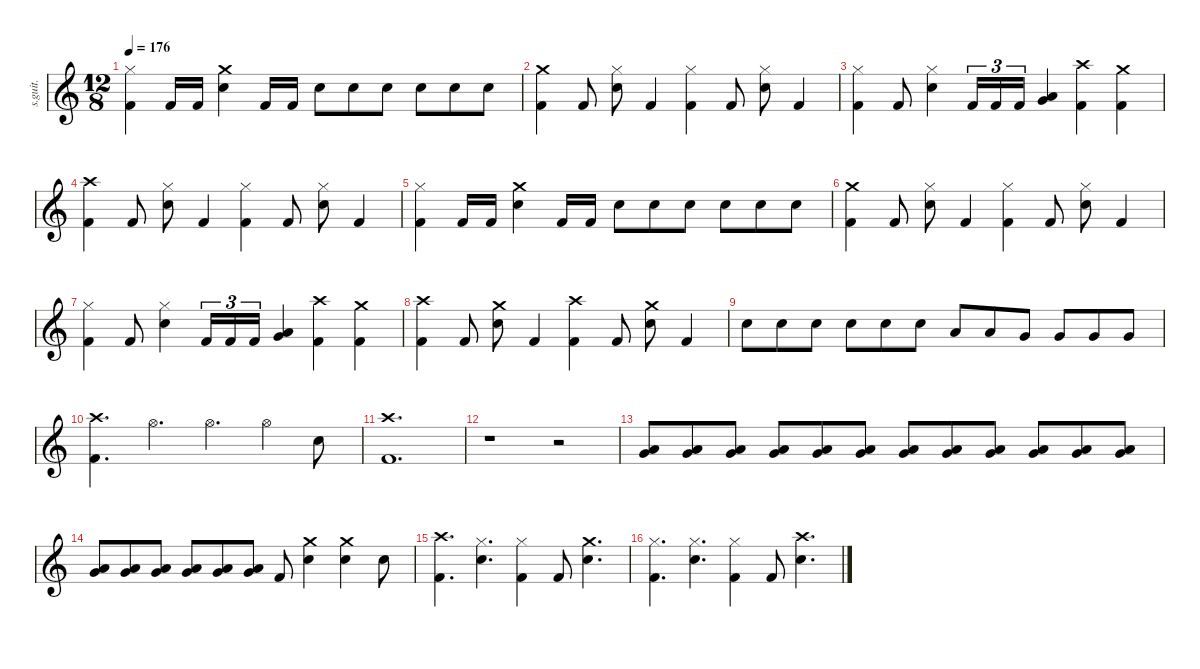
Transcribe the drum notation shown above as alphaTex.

\defaultSystemsLayout 4
\hideDynamics
\bracketExtendMode nobrackets
\track ("Vinnie Paul" "s.guit.") {instrument percussion}
\staff {score}
\articulation defaults
\ts (12 8)
\tempo 176
\clef g2
\ks c
("Hi-Hat (closed)" "Kick (hit) 2").4{lyrics (0 "") lyrics (1 "") lyrics (2 "") lyrics (3 "") lyrics (4 "") dy f} "Kick (hit) 2".16{lyrics (0 "") lyrics (1 "") lyrics (2 "") lyrics (3 "") lyrics (4 "")} "Kick (hit) 2".16{lyrics (0 "") lyrics (1 "") lyrics (2 "") lyrics (3 "") lyrics (4 "")} ("Crash medium (hit)" "Snare (hit) 2").4{lyrics (0 "") lyrics (1 "") lyrics (2 "") lyrics (3 "") lyrics (4 "")} "Kick (hit) 2".16{lyrics (0 "") lyrics (1 "") lyrics (2 "") lyrics (3 "") lyrics (4 "")} "Kick (hit) 2".16{lyrics (0 "") lyrics (1 "") lyrics (2 "") lyrics (3 "") lyrics (4 "")} "Snare (hit) 2".8{lyrics (0 "") lyrics (1 "") lyrics (2 "") lyrics (3 "") lyrics (4 "")} "Snare (hit) 2".8{lyrics (0 "") lyrics (1 "") lyrics (2 "") lyrics (3 "") lyrics (4 "")} "Snare (hit) 2".8{lyrics (0 "") lyrics (1 "") lyrics (2 "") lyrics (3 "") lyrics (4 "")} "Snare (hit) 2".8{lyrics (0 "") lyrics (1 "") lyrics (2 "") lyrics (3 "") lyrics (4 "")} "Snare (hit) 2".8{lyrics (0 "") lyrics (1 "") lyrics (2 "") lyrics (3 "") lyrics (4 "")} "Snare (hit) 2".8{lyrics (0 "") lyrics (1 "") lyrics (2 "") lyrics (3 "") lyrics (4 "")} |
("Crash medium (hit)" "Kick (hit) 2").4{lyrics (0 "") lyrics (1 "") lyrics (2 "") lyrics (3 "") lyrics (4 "")} "Kick (hit) 2".8{lyrics (0 "") lyrics (1 "") lyrics (2 "") lyrics (3 "") lyrics (4 "")} ("Hi-Hat (closed)" "Snare (hit) 2").8{lyrics (0 "") lyrics (1 "") lyrics (2 "") lyrics (3 "") lyrics (4 "")} "Kick (hit) 2".4{lyrics (0 "") lyrics (1 "") lyrics (2 "") lyrics (3 "") lyrics (4 "")} ("Hi-Hat (closed)" "Kick (hit) 2").4{lyrics (0 "") lyrics (1 "") lyrics (2 "") lyrics (3 "") lyrics (4 "")} "Kick (hit) 2".8{lyrics (0 "") lyrics (1 "") lyrics (2 "") lyrics (3 "") lyrics (4 "")} ("Hi-Hat (closed)" "Snare (hit) 2").8{lyrics (0 "") lyrics (1 "") lyrics (2 "") lyrics (3 "") lyrics (4 "")} "Kick (hit) 2".4{lyrics (0 "") lyrics (1 "") lyrics (2 "") lyrics (3 "") lyrics (4 "")} |
("Hi-Hat (closed)" "Kick (hit) 2").4{lyrics (0 "") lyrics (1 "") lyrics (2 "") lyrics (3 "") lyrics (4 "")} "Kick (hit) 2".8{lyrics (0 "") lyrics (1 "") lyrics (2 "") lyrics (3 "") lyrics (4 "")} ("Hi-Hat (closed)" "Snare (hit) 2").4{lyrics (0 "") lyrics (1 "") lyrics (2 "") lyrics (3 "") lyrics (4 "")} "Kick (hit) 2".16{tu (3 2) lyrics (0 "") lyrics (1 "") lyrics (2 "") lyrics (3 "") lyrics (4 "")} "Kick (hit) 2".16{tu (3 2) lyrics (0 "") lyrics (1 "") lyrics (2 "") lyrics (3 "") lyrics (4 "")} "Kick (hit) 2".16{tu (3 2) lyrics (0 "") lyrics (1 "") lyrics (2 "") lyrics (3 "") lyrics (4 "")} ("Very Low Tom (hit)" "Low Floor Tom (hit)").4{lyrics (0 "") lyrics (1 "") lyrics (2 "") lyrics (3 "") lyrics (4 "")} ("Crash high (hit)" "Kick (hit) 2").4{lyrics (0 "") lyrics (1 "") lyrics (2 "") lyrics (3 "") lyrics (4 "")} ("Crash medium (hit)" "Kick (hit) 2").4{lyrics (0 "") lyrics (1 "") lyrics (2 "") lyrics (3 "") lyrics (4 "")} |
("Crash high (hit)" "Kick (hit) 2").4{lyrics (0 "") lyrics (1 "") lyrics (2 "") lyrics (3 "") lyrics (4 "")} "Kick (hit) 2".8{lyrics (0 "") lyrics (1 "") lyrics (2 "") lyrics (3 "") lyrics (4 "")} ("Hi-Hat (closed)" "Snare (hit) 2").8{lyrics (0 "") lyrics (1 "") lyrics (2 "") lyrics (3 "") lyrics (4 "")} "Kick (hit) 2".4{lyrics (0 "") lyrics (1 "") lyrics (2 "") lyrics (3 "") lyrics (4 "")} ("Hi-Hat (closed)" "Kick (hit) 2").4{lyrics (0 "") lyrics (1 "") lyrics (2 "") lyrics (3 "") lyrics (4 "")} "Kick (hit) 2".8{lyrics (0 "") lyrics (1 "") lyrics (2 "") lyrics (3 "") lyrics (4 "")} ("Hi-Hat (closed)" "Snare (hit) 2").8{lyrics (0 "") lyrics (1 "") lyrics (2 "") lyrics (3 "") lyrics (4 "")} "Kick (hit) 2".4{lyrics (0 "") lyrics (1 "") lyrics (2 "") lyrics (3 "") lyrics (4 "")} |
("Hi-Hat (closed)" "Kick (hit) 2").4{lyrics (0 "") lyrics (1 "") lyrics (2 "") lyrics (3 "") lyrics (4 "")} "Kick (hit) 2".16{lyrics (0 "") lyrics (1 "") lyrics (2 "") lyrics (3 "") lyrics (4 "")} "Kick (hit) 2".16{lyrics (0 "") lyrics (1 "") lyrics (2 "") lyrics (3 "") lyrics (4 "")} ("Crash medium (hit)" "Snare (hit) 2").4{lyrics (0 "") lyrics (1 "") lyrics (2 "") lyrics (3 "") lyrics (4 "")} "Kick (hit) 2".16{lyrics (0 "") lyrics (1 "") lyrics (2 "") lyrics (3 "") lyrics (4 "")} "Kick (hit) 2".16{lyrics (0 "") lyrics (1 "") lyrics (2 "") lyrics (3 "") lyrics (4 "")} "Snare (hit) 2".8{lyrics (0 "") lyrics (1 "") lyrics (2 "") lyrics (3 "") lyrics (4 "")} "Snare (hit) 2".8{lyrics (0 "") lyrics (1 "") lyrics (2 "") lyrics (3 "") lyrics (4 "")} "Snare (hit) 2".8{lyrics (0 "") lyrics (1 "") lyrics (2 "") lyrics (3 "") lyrics (4 "")} "Snare (hit) 2".8{lyrics (0 "") lyrics (1 "") lyrics (2 "") lyrics (3 "") lyrics (4 "")} "Snare (hit) 2".8{lyrics (0 "") lyrics (1 "") lyrics (2 "") lyrics (3 "") lyrics (4 "")} "Snare (hit) 2".8{lyrics (0 "") lyrics (1 "") lyrics (2 "") lyrics (3 "") lyrics (4 "")} |
("Crash medium (hit)" "Kick (hit) 2").4{lyrics (0 "") lyrics (1 "") lyrics (2 "") lyrics (3 "") lyrics (4 "")} "Kick (hit) 2".8{lyrics (0 "") lyrics (1 "") lyrics (2 "") lyrics (3 "") lyrics (4 "")} ("Hi-Hat (closed)" "Snare (hit) 2").8{lyrics (0 "") lyrics (1 "") lyrics (2 "") lyrics (3 "") lyrics (4 "")} "Kick (hit) 2".4{lyrics (0 "") lyrics (1 "") lyrics (2 "") lyrics (3 "") lyrics (4 "")} ("Hi-Hat (closed)" "Kick (hit) 2").4{lyrics (0 "") lyrics (1 "") lyrics (2 "") lyrics (3 "") lyrics (4 "")} "Kick (hit) 2".8{lyrics (0 "") lyrics (1 "") lyrics (2 "") lyrics (3 "") lyrics (4 "")} ("Hi-Hat (closed)" "Snare (hit) 2").8{lyrics (0 "") lyrics (1 "") lyrics (2 "") lyrics (3 "") lyrics (4 "")} "Kick (hit) 2".4{lyrics (0 "") lyrics (1 "") lyrics (2 "") lyrics (3 "") lyrics (4 "")} |
("Hi-Hat (closed)" "Kick (hit) 2").4{lyrics (0 "") lyrics (1 "") lyrics (2 "") lyrics (3 "") lyrics (4 "")} "Kick (hit) 2".8{lyrics (0 "") lyrics (1 "") lyrics (2 "") lyrics (3 "") lyrics (4 "")} ("Hi-Hat (closed)" "Snare (hit) 2").4{lyrics (0 "") lyrics (1 "") lyrics (2 "") lyrics (3 "") lyrics (4 "")} "Kick (hit) 2".16{tu (3 2) lyrics (0 "") lyrics (1 "") lyrics (2 "") lyrics (3 "") lyrics (4 "")} "Kick (hit) 2".16{tu (3 2) lyrics (0 "") lyrics (1 "") lyrics (2 "") lyrics (3 "") lyrics (4 "")} "Kick (hit) 2".16{tu (3 2) lyrics (0 "") lyrics (1 "") lyrics (2 "") lyrics (3 "") lyrics (4 "")} ("Very Low Tom (hit)" "Low Floor Tom (hit)").4{lyrics (0 "") lyrics (1 "") lyrics (2 "") lyrics (3 "") lyrics (4 "")} ("Crash high (hit)" "Kick (hit) 2").4{lyrics (0 "") lyrics (1 "") lyrics (2 "") lyrics (3 "") lyrics (4 "")} ("Crash medium (hit)" "Kick (hit) 2").4{lyrics (0 "") lyrics (1 "") lyrics (2 "") lyrics (3 "") lyrics (4 "")} |
("Crash high (hit)" "Kick (hit) 2").4{lyrics (0 "") lyrics (1 "") lyrics (2 "") lyrics (3 "") lyrics (4 "")} "Kick (hit) 2".8{lyrics (0 "") lyrics (1 "") lyrics (2 "") lyrics (3 "") lyrics (4 "")} ("Crash medium (hit)" "Snare (hit) 2").8{lyrics (0 "") lyrics (1 "") lyrics (2 "") lyrics (3 "") lyrics (4 "")} "Kick (hit) 2".4{lyrics (0 "") lyrics (1 "") lyrics (2 "") lyrics (3 "") lyrics (4 "")} ("Crash high (hit)" "Kick (hit) 2").4{lyrics (0 "") lyrics (1 "") lyrics (2 "") lyrics (3 "") lyrics (4 "")} "Kick (hit) 2".8{lyrics (0 "") lyrics (1 "") lyrics (2 "") lyrics (3 "") lyrics (4 "")} ("Crash medium (hit)" "Snare (hit) 2").8{lyrics (0 "") lyrics (1 "") lyrics (2 "") lyrics (3 "") lyrics (4 "")} "Kick (hit) 2".4{lyrics (0 "") lyrics (1 "") lyrics (2 "") lyrics (3 "") lyrics (4 "")} |
"Snare (hit) 2".8{lyrics (0 "") lyrics (1 "") lyrics (2 "") lyrics (3 "") lyrics (4 "")} "Snare (hit) 2".8{lyrics (0 "") lyrics (1 "") lyrics (2 "") lyrics (3 "") lyrics (4 "")} "Snare (hit) 2".8{lyrics (0 "") lyrics (1 "") lyrics (2 "") lyrics (3 "") lyrics (4 "")} "Snare (hit) 2".8{lyrics (0 "") lyrics (1 "") lyrics (2 "") lyrics (3 "") lyrics (4 "")} "Snare (hit) 2".8{lyrics (0 "") lyrics (1 "") lyrics (2 "") lyrics (3 "") lyrics (4 "")} "Snare (hit) 2".8{lyrics (0 "") lyrics (1 "") lyrics (2 "") lyrics (3 "") lyrics (4 "")} "Low Tom (hit)".8{lyrics (0 "") lyrics (1 "") lyrics (2 "") lyrics (3 "") lyrics (4 "")} "Low Tom (hit)".8{lyrics (0 "") lyrics (1 "") lyrics (2 "") lyrics (3 "") lyrics (4 "")} "Very Low Tom (hit)".8{lyrics (0 "") lyrics (1 "") lyrics (2 "") lyrics (3 "") lyrics (4 "")} "Very Low Tom (hit)".8{lyrics (0 "") lyrics (1 "") lyrics (2 "") lyrics (3 "") lyrics (4 "")} "Very Low Tom (hit)".8{lyrics (0 "") lyrics (1 "") lyrics (2 "") lyrics (3 "") lyrics (4 "")} "Very Low Tom (hit)".8{lyrics (0 "") lyrics (1 "") lyrics (2 "") lyrics (3 "") lyrics (4 "")} |
("Crash high (hit)" "Kick (hit) 2").4{d lyrics (0 "") lyrics (1 "") lyrics (2 "") lyrics (3 "") lyrics (4 "")} "Hi-Hat (open)".4{d lyrics (0 "") lyrics (1 "") lyrics (2 "") lyrics (3 "") lyrics (4 "")} "Hi-Hat (open)".4{d lyrics (0 "") lyrics (1 "") lyrics (2 "") lyrics (3 "") lyrics (4 "")} "Hi-Hat (open)".4{lyrics (0 "") lyrics (1 "") lyrics (2 "") lyrics (3 "") lyrics (4 "")} "Snare (hit) 2".8{lyrics (0 "") lyrics (1 "") lyrics (2 "") lyrics (3 "") lyrics (4 "")} |
("Crash high (hit)" "Kick (hit) 2").1{d lyrics (0 "") lyrics (1 "") lyrics (2 "") lyrics (3 "") lyrics (4 "")} |
r.1 r.2 |
("Very Low Tom (hit)" "Low Floor Tom (hit)").8{lyrics (0 "") lyrics (1 "") lyrics (2 "") lyrics (3 "") lyrics (4 "")} ("Very Low Tom (hit)" "Low Floor Tom (hit)").8{lyrics (0 "") lyrics (1 "") lyrics (2 "") lyrics (3 "") lyrics (4 "")} ("Very Low Tom (hit)" "Low Floor Tom (hit)").8{lyrics (0 "") lyrics (1 "") lyrics (2 "") lyrics (3 "") lyrics (4 "")} ("Very Low Tom (hit)" "Low Floor Tom (hit)").8{lyrics (0 "") lyrics (1 "") lyrics (2 "") lyrics (3 "") lyrics (4 "")} ("Very Low Tom (hit)" "Low Floor Tom (hit)").8{lyrics (0 "") lyrics (1 "") lyrics (2 "") lyrics (3 "") lyrics (4 "")} ("Very Low Tom (hit)" "Low Floor Tom (hit)").8{lyrics (0 "") lyrics (1 "") lyrics (2 "") lyrics (3 "") lyrics (4 "")} ("Very Low Tom (hit)" "Low Floor Tom (hit)").8{lyrics (0 "") lyrics (1 "") lyrics (2 "") lyrics (3 "") lyrics (4 "")} ("Very Low Tom (hit)" "Low Floor Tom (hit)").8{lyrics (0 "") lyrics (1 "") lyrics (2 "") lyrics (3 "") lyrics (4 "")} ("Very Low Tom (hit)" "Low Floor Tom (hit)").8{lyrics (0 "") lyrics (1 "") lyrics (2 "") lyrics (3 "") lyrics (4 "")} ("Very Low Tom (hit)" "Low Floor Tom (hit)").8{lyrics (0 "") lyrics (1 "") lyrics (2 "") lyrics (3 "") lyrics (4 "")} ("Very Low Tom (hit)" "Low Floor Tom (hit)").8{lyrics (0 "") lyrics (1 "") lyrics (2 "") lyrics (3 "") lyrics (4 "")} ("Very Low Tom (hit)" "Low Floor Tom (hit)").8{lyrics (0 "") lyrics (1 "") lyrics (2 "") lyrics (3 "") lyrics (4 "")} |
("Very Low Tom (hit)" "Low Floor Tom (hit)").8{lyrics (0 "") lyrics (1 "") lyrics (2 "") lyrics (3 "") lyrics (4 "")} ("Very Low Tom (hit)" "Low Floor Tom (hit)").8{lyrics (0 "") lyrics (1 "") lyrics (2 "") lyrics (3 "") lyrics (4 "")} ("Very Low Tom (hit)" "Low Floor Tom (hit)").8{lyrics (0 "") lyrics (1 "") lyrics (2 "") lyrics (3 "") lyrics (4 "")} ("Very Low Tom (hit)" "Low Floor Tom (hit)").8{lyrics (0 "") lyrics (1 "") lyrics (2 "") lyrics (3 "") lyrics (4 "")} ("Very Low Tom (hit)" "Low Floor Tom (hit)").8{lyrics (0 "") lyrics (1 "") lyrics (2 "") lyrics (3 "") lyrics (4 "")} ("Very Low Tom (hit)" "Low Floor Tom (hit)").8{lyrics (0 "") lyrics (1 "") lyrics (2 "") lyrics (3 "") lyrics (4 "")} "Kick (hit) 2".8{lyrics (0 "") lyrics (1 "") lyrics (2 "") lyrics (3 "") lyrics (4 "")} ("Crash medium (hit)" "Snare (hit) 2").4{lyrics (0 "") lyrics (1 "") lyrics (2 "") lyrics (3 "") lyrics (4 "")} ("Crash medium (hit)" "Snare (hit) 2").4{lyrics (0 "") lyrics (1 "") lyrics (2 "") lyrics (3 "") lyrics (4 "")} "Snare (hit) 2".8{lyrics (0 "") lyrics (1 "") lyrics (2 "") lyrics (3 "") lyrics (4 "")} |
("Crash high (hit)" "Kick (hit) 2").4{d lyrics (0 "") lyrics (1 "") lyrics (2 "") lyrics (3 "") lyrics (4 "")} ("Hi-Hat (closed)" "Snare (hit) 2").4{d lyrics (0 "") lyrics (1 "") lyrics (2 "") lyrics (3 "") lyrics (4 "")} ("Hi-Hat (closed)" "Kick (hit) 2").4{lyrics (0 "") lyrics (1 "") lyrics (2 "") lyrics (3 "") lyrics (4 "")} "Kick (hit) 2".8{lyrics (0 "") lyrics (1 "") lyrics (2 "") lyrics (3 "") lyrics (4 "")} ("Crash medium (hit)" "Snare (hit) 2").4{d lyrics (0 "") lyrics (1 "") lyrics (2 "") lyrics (3 "") lyrics (4 "")} |
("Hi-Hat (closed)" "Kick (hit) 2").4{d lyrics (0 "") lyrics (1 "") lyrics (2 "") lyrics (3 "") lyrics (4 "")} ("Hi-Hat (closed)" "Snare (hit) 2").4{d lyrics (0 "") lyrics (1 "") lyrics (2 "") lyrics (3 "") lyrics (4 "")} ("Hi-Hat (closed)" "Kick (hit) 2").4{lyrics (0 "") lyrics (1 "") lyrics (2 "") lyrics (3 "") lyrics (4 "")} "Kick (hit) 2".8{lyrics (0 "") lyrics (1 "") lyrics (2 "") lyrics (3 "") lyrics (4 "")} ("Crash high (hit)" "Snare (hit) 2").4{d lyrics (0 "") lyrics (1 "") lyrics (2 "") lyrics (3 "") lyrics (4 "")}
